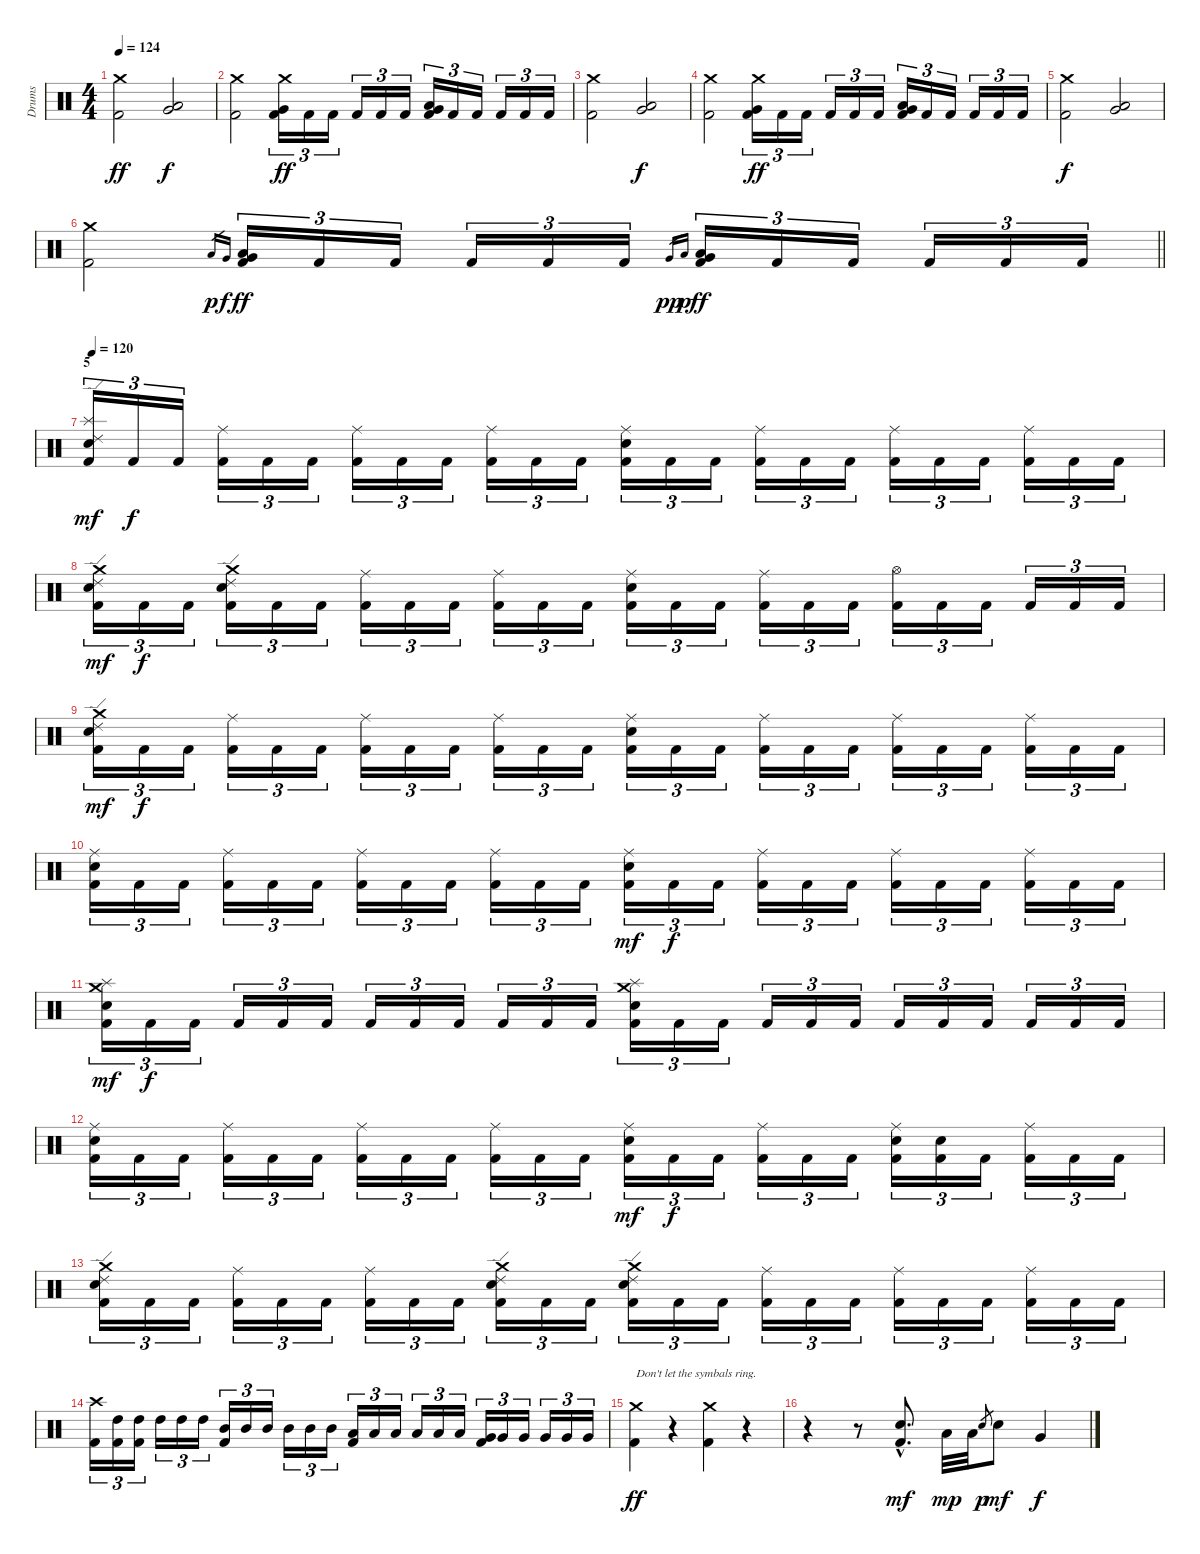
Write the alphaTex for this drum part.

\track ("Drums" "Drums") {instrument percussion}
\staff {score}
\articulation defaults
\ts (4 4)
\tempo 124
\clef neutral
\ks c
("Crash medium (hit)" "Kick (hit) 2").2{dy ff} ("Low Floor Tom (hit)" "Very Low Tom (hit)").2{dy f} |
("Crash medium (hit)" "Kick (hit) 2").2 ("Crash medium (hit)" "Very Low Tom (hit)" "Kick (hit) 2").16{tu (3 2) dy ff} "Kick (hit) 2".16{tu (3 2)} "Kick (hit) 2".16{tu (3 2)} "Kick (hit) 2".16{tu (3 2)} "Kick (hit) 2".16{tu (3 2)} "Kick (hit) 2".16{tu (3 2)} ("Very Low Tom (hit)" "Low Tom (hit)" "Kick (hit) 2").16{tu (3 2)} "Kick (hit) 2".16{tu (3 2)} "Kick (hit) 2".16{tu (3 2)} "Kick (hit) 2".16{tu (3 2)} "Kick (hit) 2".16{tu (3 2)} "Kick (hit) 2".16{tu (3 2)} |
("Crash medium (hit)" "Kick (hit) 2").2 ("Low Floor Tom (hit)" "Very Low Tom (hit)").2{dy f} |
("Crash medium (hit)" "Kick (hit) 2").2 ("Crash medium (hit)" "Very Low Tom (hit)" "Kick (hit) 2").16{tu (3 2) dy ff} "Kick (hit) 2".16{tu (3 2)} "Kick (hit) 2".16{tu (3 2)} "Kick (hit) 2".16{tu (3 2)} "Kick (hit) 2".16{tu (3 2)} "Kick (hit) 2".16{tu (3 2)} ("Very Low Tom (hit)" "Low Tom (hit)" "Kick (hit) 2").16{tu (3 2)} "Kick (hit) 2".16{tu (3 2)} "Kick (hit) 2".16{tu (3 2)} "Kick (hit) 2".16{tu (3 2)} "Kick (hit) 2".16{tu (3 2)} "Kick (hit) 2".16{tu (3 2)} |
("Crash medium (hit)" "Kick (hit) 2").2{dy f} ("Low Floor Tom (hit)" "Very Low Tom (hit)").2 |
\barLineRight lightlight
("Crash medium (hit)" "Kick (hit) 2").2 "Low Floor Tom (hit)"{sl}.16{gr dy p} "Very Low Tom (hit)".16{gr dy f} ("Low Floor Tom (hit)" "Very Low Tom (hit)" "Kick (hit) 2").16{tu (3 2) dy ff} "Kick (hit) 2".16{tu (3 2)} "Kick (hit) 2".16{tu (3 2)} "Kick (hit) 2".16{tu (3 2)} "Kick (hit) 2".16{tu (3 2)} "Kick (hit) 2".16{tu (3 2)} "Very Low Tom (hit)"{sl}.16{gr dy pp} "Low Tom (hit)"{sl}.16{gr dy p} ("Very Low Tom (hit)" "Low Tom (hit)" "Kick (hit) 2").16{tu (3 2) dy ff} "Kick (hit) 2".16{tu (3 2)} "Kick (hit) 2".16{tu (3 2)} "Kick (hit) 2".16{tu (3 2)} "Kick (hit) 2".16{tu (3 2)} "Kick (hit) 2".16{tu (3 2)} |
\section ("" "5")
\tempo 120
("Splash (hit)" "Ride (edge) 2" "Electric Snare (hit)" "Kick (hit) 2").16{tu (3 2) dy mf} "Kick (hit) 2".16{tu (3 2) dy f} "Kick (hit) 2".16{tu (3 2)} ("Ride (middle)" "Kick (hit) 2").16{tu (3 2)} "Kick (hit) 2".16{tu (3 2)} "Kick (hit) 2".16{tu (3 2)} ("Ride (middle)" "Kick (hit) 2").16{tu (3 2)} "Kick (hit) 2".16{tu (3 2)} "Kick (hit) 2".16{tu (3 2)} ("Ride (middle)" "Kick (hit) 2").16{tu (3 2)} "Kick (hit) 2".16{tu (3 2)} "Kick (hit) 2".16{tu (3 2)} ("Ride (middle)" "Electric Snare (hit)" "Kick (hit) 2").16{tu (3 2)} "Kick (hit) 2".16{tu (3 2)} "Kick (hit) 2".16{tu (3 2)} ("Ride (middle)" "Kick (hit) 2").16{tu (3 2)} "Kick (hit) 2".16{tu (3 2)} "Kick (hit) 2".16{tu (3 2)} ("Ride (middle)" "Kick (hit) 2").16{tu (3 2)} "Kick (hit) 2".16{tu (3 2)} "Kick (hit) 2".16{tu (3 2)} ("Ride (middle)" "Kick (hit) 2").16{tu (3 2)} "Kick (hit) 2".16{tu (3 2)} "Kick (hit) 2".16{tu (3 2)} |
("Crash medium (hit)" "Ride (edge) 2" "Electric Snare (hit)" "Kick (hit) 2").16{tu (3 2) dy mf} "Kick (hit) 2".16{tu (3 2) dy f} "Kick (hit) 2".16{tu (3 2)} ("Crash medium (hit)" "Ride (edge) 2" "Electric Snare (hit)" "Kick (hit) 2").16{tu (3 2)} "Kick (hit) 2".16{tu (3 2)} "Kick (hit) 2".16{tu (3 2)} ("Ride (middle)" "Kick (hit) 2").16{tu (3 2)} "Kick (hit) 2".16{tu (3 2)} "Kick (hit) 2".16{tu (3 2)} ("Ride (middle)" "Kick (hit) 2").16{tu (3 2)} "Kick (hit) 2".16{tu (3 2)} "Kick (hit) 2".16{tu (3 2)} ("Ride (middle)" "Electric Snare (hit)" "Kick (hit) 2").16{tu (3 2)} "Kick (hit) 2".16{tu (3 2)} "Kick (hit) 2".16{tu (3 2)} ("Ride (middle)" "Kick (hit) 2").16{tu (3 2)} "Kick (hit) 2".16{tu (3 2)} "Kick (hit) 2".16{tu (3 2)} ("Hi-Hat (open)" "Kick (hit) 2").16{tu (3 2)} "Kick (hit) 2".16{tu (3 2)} "Kick (hit) 2".16{tu (3 2)} "Kick (hit) 2".16{tu (3 2)} "Kick (hit) 2".16{tu (3 2)} "Kick (hit) 2".16{tu (3 2)} |
("Crash medium (hit)" "Ride (edge) 2" "Electric Snare (hit)" "Kick (hit) 2").16{tu (3 2) dy mf} "Kick (hit) 2".16{tu (3 2) dy f} "Kick (hit) 2".16{tu (3 2)} ("Ride (middle)" "Kick (hit) 2").16{tu (3 2)} "Kick (hit) 2".16{tu (3 2)} "Kick (hit) 2".16{tu (3 2)} ("Ride (middle)" "Kick (hit) 2").16{tu (3 2)} "Kick (hit) 2".16{tu (3 2)} "Kick (hit) 2".16{tu (3 2)} ("Ride (middle)" "Kick (hit) 2").16{tu (3 2)} "Kick (hit) 2".16{tu (3 2)} "Kick (hit) 2".16{tu (3 2)} ("Ride (middle)" "Electric Snare (hit)" "Kick (hit) 2").16{tu (3 2)} "Kick (hit) 2".16{tu (3 2)} "Kick (hit) 2".16{tu (3 2)} ("Ride (middle)" "Kick (hit) 2").16{tu (3 2)} "Kick (hit) 2".16{tu (3 2)} "Kick (hit) 2".16{tu (3 2)} ("Ride (middle)" "Kick (hit) 2").16{tu (3 2)} "Kick (hit) 2".16{tu (3 2)} "Kick (hit) 2".16{tu (3 2)} ("Ride (middle)" "Kick (hit) 2").16{tu (3 2)} "Kick (hit) 2".16{tu (3 2)} "Kick (hit) 2".16{tu (3 2)} |
("Ride (middle)" "Electric Snare (hit)" "Kick (hit) 2").16{tu (3 2)} "Kick (hit) 2".16{tu (3 2)} "Kick (hit) 2".16{tu (3 2)} ("Ride (middle)" "Kick (hit) 2").16{tu (3 2)} "Kick (hit) 2".16{tu (3 2)} "Kick (hit) 2".16{tu (3 2)} ("Ride (middle)" "Kick (hit) 2").16{tu (3 2)} "Kick (hit) 2".16{tu (3 2)} "Kick (hit) 2".16{tu (3 2)} ("Ride (middle)" "Kick (hit) 2").16{tu (3 2)} "Kick (hit) 2".16{tu (3 2)} "Kick (hit) 2".16{tu (3 2)} ("Ride (middle)" "Electric Snare (hit)" "Kick (hit) 2").16{tu (3 2) dy mf} "Kick (hit) 2".16{tu (3 2) dy f} "Kick (hit) 2".16{tu (3 2)} ("Ride (middle)" "Kick (hit) 2").16{tu (3 2)} "Kick (hit) 2".16{tu (3 2)} "Kick (hit) 2".16{tu (3 2)} ("Ride (middle)" "Kick (hit) 2").16{tu (3 2)} "Kick (hit) 2".16{tu (3 2)} "Kick (hit) 2".16{tu (3 2)} ("Ride (middle)" "Kick (hit) 2").16{tu (3 2)} "Kick (hit) 2".16{tu (3 2)} "Kick (hit) 2".16{tu (3 2)} |
("Splash (hit)" "Crash medium (hit)" "Electric Snare (hit)" "Kick (hit) 2").16{tu (3 2) dy mf} "Kick (hit) 2".16{tu (3 2) dy f} "Kick (hit) 2".16{tu (3 2)} "Kick (hit) 2".16{tu (3 2)} "Kick (hit) 2".16{tu (3 2)} "Kick (hit) 2".16{tu (3 2)} "Kick (hit) 2".16{tu (3 2)} "Kick (hit) 2".16{tu (3 2)} "Kick (hit) 2".16{tu (3 2)} "Kick (hit) 2".16{tu (3 2)} "Kick (hit) 2".16{tu (3 2)} "Kick (hit) 2".16{tu (3 2)} ("Splash (hit)" "Crash medium (hit)" "Electric Snare (hit)" "Kick (hit) 2").16{tu (3 2)} "Kick (hit) 2".16{tu (3 2)} "Kick (hit) 2".16{tu (3 2)} "Kick (hit) 2".16{tu (3 2)} "Kick (hit) 2".16{tu (3 2)} "Kick (hit) 2".16{tu (3 2)} "Kick (hit) 2".16{tu (3 2)} "Kick (hit) 2".16{tu (3 2)} "Kick (hit) 2".16{tu (3 2)} "Kick (hit) 2".16{tu (3 2)} "Kick (hit) 2".16{tu (3 2)} "Kick (hit) 2".16{tu (3 2)} |
("Ride (middle)" "Electric Snare (hit)" "Kick (hit) 2").16{tu (3 2)} "Kick (hit) 2".16{tu (3 2)} "Kick (hit) 2".16{tu (3 2)} ("Ride (middle)" "Kick (hit) 2").16{tu (3 2)} "Kick (hit) 2".16{tu (3 2)} "Kick (hit) 2".16{tu (3 2)} ("Ride (middle)" "Kick (hit) 2").16{tu (3 2)} "Kick (hit) 2".16{tu (3 2)} "Kick (hit) 2".16{tu (3 2)} ("Ride (middle)" "Kick (hit) 2").16{tu (3 2)} "Kick (hit) 2".16{tu (3 2)} "Kick (hit) 2".16{tu (3 2)} ("Ride (middle)" "Electric Snare (hit)" "Kick (hit) 2").16{tu (3 2) dy mf} "Kick (hit) 2".16{tu (3 2) dy f} "Kick (hit) 2".16{tu (3 2)} ("Ride (middle)" "Kick (hit) 2").16{tu (3 2)} "Kick (hit) 2".16{tu (3 2)} "Kick (hit) 2".16{tu (3 2)} ("Ride (middle)" "Electric Snare (hit)" "Kick (hit) 2").16{tu (3 2)} ("Electric Snare (hit)" "Kick (hit) 2").16{tu (3 2)} "Kick (hit) 2".16{tu (3 2)} ("Ride (middle)" "Kick (hit) 2").16{tu (3 2)} "Kick (hit) 2".16{tu (3 2)} "Kick (hit) 2".16{tu (3 2)} |
("Crash medium (hit)" "Ride (edge) 2" "Electric Snare (hit)" "Kick (hit) 2").16{tu (3 2)} "Kick (hit) 2".16{tu (3 2)} "Kick (hit) 2".16{tu (3 2)} ("Ride (middle)" "Kick (hit) 2").16{tu (3 2)} "Kick (hit) 2".16{tu (3 2)} "Kick (hit) 2".16{tu (3 2)} ("Ride (middle)" "Kick (hit) 2").16{tu (3 2)} "Kick (hit) 2".16{tu (3 2)} "Kick (hit) 2".16{tu (3 2)} ("Crash medium (hit)" "Ride (edge) 2" "Electric Snare (hit)" "Kick (hit) 2").16{tu (3 2)} "Kick (hit) 2".16{tu (3 2)} "Kick (hit) 2".16{tu (3 2)} ("Crash medium (hit)" "Ride (edge) 2" "Electric Snare (hit)" "Kick (hit) 2").16{tu (3 2)} "Kick (hit) 2".16{tu (3 2)} "Kick (hit) 2".16{tu (3 2)} ("Ride (middle)" "Kick (hit) 2").16{tu (3 2)} "Kick (hit) 2".16{tu (3 2)} "Kick (hit) 2".16{tu (3 2)} ("Ride (middle)" "Kick (hit) 2").16{tu (3 2)} "Kick (hit) 2".16{tu (3 2)} "Kick (hit) 2".16{tu (3 2)} ("Ride (middle)" "Kick (hit) 2").16{tu (3 2)} "Kick (hit) 2".16{tu (3 2)} "Kick (hit) 2".16{tu (3 2)} |
("Crash high (hit)" "Kick (hit) 2").16{tu (3 2)} ("High Tom (hit)" "Kick (hit) 2").16{tu (3 2)} ("High Tom (hit)" "Kick (hit) 2").16{tu (3 2)} "High Tom (hit)".16{tu (3 2)} "High Tom (hit)".16{tu (3 2)} "High Tom (hit)".16{tu (3 2)} ("Mid Tom (hit)" "Kick (hit) 2").16{tu (3 2)} "Mid Tom (hit)".16{tu (3 2)} "Mid Tom (hit)".16{tu (3 2)} "Mid Tom (hit)".16{tu (3 2)} "Mid Tom (hit)".16{tu (3 2)} "Mid Tom (hit)".16{tu (3 2)} ("Low Tom (hit)" "Kick (hit) 2").16{tu (3 2)} "Low Tom (hit)".16{tu (3 2)} "Low Tom (hit)".16{tu (3 2)} "Low Tom (hit)".16{tu (3 2)} "Low Tom (hit)".16{tu (3 2)} "Low Tom (hit)".16{tu (3 2)} ("Very Low Tom (hit)" "Kick (hit) 2").16{tu (3 2)} "Very Low Tom (hit)".16{tu (3 2)} "Very Low Tom (hit)".16{tu (3 2)} "Very Low Tom (hit)".16{tu (3 2)} "Very Low Tom (hit)".16{tu (3 2)} "Very Low Tom (hit)".16{tu (3 2)} |
("Crash medium (hit)" "Kick (hit) 2").4{txt "Don't let the symbals ring." dy ff} r.4 ("Crash medium (hit)" "Kick (hit) 2").4 r.4 |
r.4 r.8 ("Electric Snare (hit)"{hac} "Kick (hit) 2"{hac}).8{d dy mf} "Low Tom (hit)".32{dy mp} "Low Tom (hit)".32 "Electric Snare (hit)"{sl}.8{gr dy p} "Electric Snare (hit)".8{dy mf} "Very Low Tom (hit)".4{dy f}
